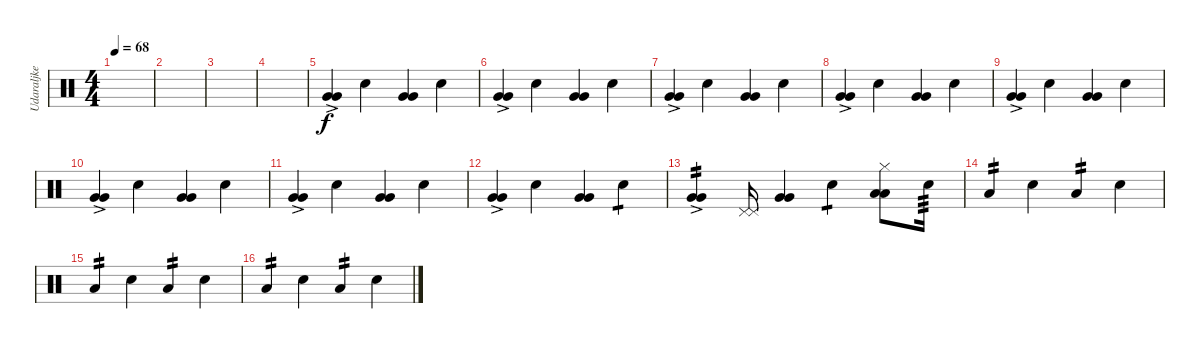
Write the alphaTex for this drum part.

\track ("Udaraljke" "Udaraljke") {instrument percussion}
\staff {score}
\articulation defaults
\ts (4 4)
\tempo 68
\clef neutral
\ks c
|
|
|
|
("Very Low Tom (hit)"{ac} "Very Low Tom (hit)").4 "Electric Snare (hit)".4 ("Very Low Tom (hit)" "Very Low Tom (hit)").4 "Electric Snare (hit)".4 |
("Very Low Tom (hit)"{ac} "Very Low Tom (hit)").4 "Electric Snare (hit)".4 ("Very Low Tom (hit)" "Very Low Tom (hit)").4 "Electric Snare (hit)".4 |
("Very Low Tom (hit)"{ac} "Very Low Tom (hit)").4 "Electric Snare (hit)".4 ("Very Low Tom (hit)" "Very Low Tom (hit)").4 "Electric Snare (hit)".4 |
("Very Low Tom (hit)"{ac} "Very Low Tom (hit)").4 "Electric Snare (hit)".4 ("Very Low Tom (hit)" "Very Low Tom (hit)").4 "Electric Snare (hit)".4 |
("Very Low Tom (hit)"{ac} "Very Low Tom (hit)").4 "Electric Snare (hit)".4 ("Very Low Tom (hit)" "Very Low Tom (hit)").4 "Electric Snare (hit)".4 |
("Very Low Tom (hit)"{ac} "Very Low Tom (hit)").4 "Electric Snare (hit)".4 ("Very Low Tom (hit)" "Very Low Tom (hit)").4 "Electric Snare (hit)".4 |
("Very Low Tom (hit)"{ac} "Very Low Tom (hit)").4 "Electric Snare (hit)".4 ("Very Low Tom (hit)" "Very Low Tom (hit)").4 "Electric Snare (hit)".4 |
("Very Low Tom (hit)"{ac} "Very Low Tom (hit)").4 "Electric Snare (hit)".4 ("Very Low Tom (hit)" "Very Low Tom (hit)").4 "Electric Snare (hit)".4{tp 1} |
("Very Low Tom (hit)"{ac} "Very Low Tom (hit)").4{tp 2} ("Pedal Hi-Hat (hit)" "Pedal Hi-Hat (hit)").16 ("Very Low Tom (hit)" "Very Low Tom (hit)").4 "Electric Snare (hit)".4{tp 1} ("Hi-Hat (closed)" "Low Tom (hit)" "Low Tom (hit)").8 "Electric Snare (hit)".16{tp 3} |
"Low Tom (hit)".4{tp 2} "Electric Snare (hit)".4 "Low Tom (hit)".4{tp 2} "Electric Snare (hit)".4 |
"Low Tom (hit)".4{tp 2} "Electric Snare (hit)".4 "Low Tom (hit)".4{tp 2} "Electric Snare (hit)".4 |
"Low Tom (hit)".4{tp 2} "Electric Snare (hit)".4 "Low Tom (hit)".4{tp 2} "Electric Snare (hit)".4
